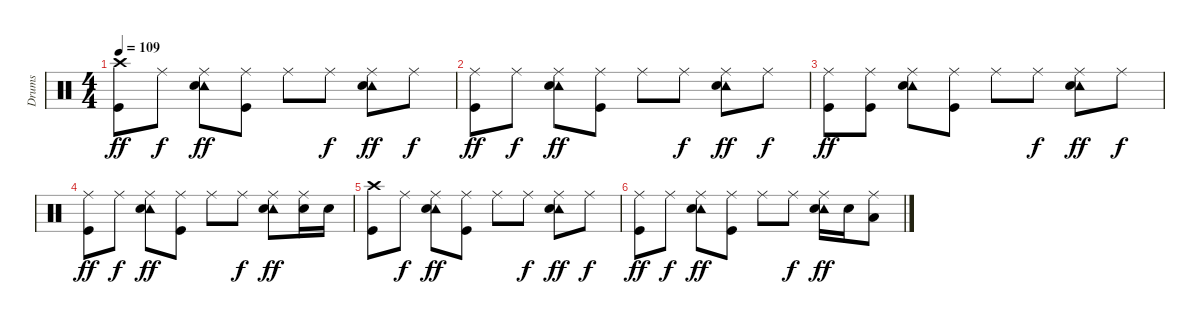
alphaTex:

\track ("Drums" "Drums") {instrument percussion}
\staff {score}
\articulation defaults
\ts (4 4)
\tempo 109
\clef neutral
\ks c
("Crash high (hit)" "Kick (hit)").8{dy ff} "Ride (middle)".8{dy f} ("Ride (middle)" "Tambourine (hit)" "Electric Snare (hit)").8{dy ff} ("Ride (middle)" "Kick (hit)").8 "Ride (middle)".8 "Ride (middle)".8{dy f} ("Ride (middle)" "Tambourine (hit)" "Electric Snare (hit)").8{dy ff} "Ride (middle)".8{dy f} |
("Ride (middle)" "Kick (hit)").8{dy ff} "Ride (middle)".8{dy f} ("Ride (middle)" "Tambourine (hit)" "Electric Snare (hit)").8{dy ff} ("Ride (middle)" "Kick (hit)").8 "Ride (middle)".8 "Ride (middle)".8{dy f} ("Ride (middle)" "Tambourine (hit)" "Electric Snare (hit)").8{dy ff} "Ride (middle)".8{dy f} |
("Ride (middle)" "Kick (hit)").8{dy ff} ("Ride (middle)" "Kick (hit)").8 ("Ride (middle)" "Tambourine (hit)" "Electric Snare (hit)").8 ("Ride (middle)" "Kick (hit)").8 "Ride (middle)".8 "Ride (middle)".8{dy f} ("Ride (middle)" "Tambourine (hit)" "Electric Snare (hit)").8{dy ff} "Ride (middle)".8{dy f} |
("Ride (middle)" "Kick (hit)").8{dy ff} "Ride (middle)".8{dy f} ("Ride (middle)" "Tambourine (hit)" "Electric Snare (hit)").8{dy ff} ("Ride (middle)" "Kick (hit)").8 "Ride (middle)".8 "Ride (middle)".8{dy f} ("Ride (middle)" "Tambourine (hit)" "Electric Snare (hit)").8{dy ff} ("Ride (middle)" "Electric Snare (hit)").16 "Electric Snare (hit)".16 |
("Crash high (hit)" "Kick (hit)").8 "Ride (middle)".8{dy f} ("Ride (middle)" "Tambourine (hit)" "Electric Snare (hit)").8{dy ff} ("Ride (middle)" "Kick (hit)").8 "Ride (middle)".8 "Ride (middle)".8{dy f} ("Ride (middle)" "Tambourine (hit)" "Electric Snare (hit)").8{dy ff} "Ride (middle)".8{dy f} |
("Ride (middle)" "Kick (hit)").8{dy ff} "Ride (middle)".8{dy f} ("Ride (middle)" "Tambourine (hit)" "Electric Snare (hit)").8{dy ff} ("Ride (middle)" "Kick (hit)").8 "Ride (middle)".8 "Ride (middle)".8{dy f} ("Ride (middle)" "Tambourine (hit)" "Electric Snare (hit)").16{dy ff} "Electric Snare (hit)".16 ("Ride (middle)" "Low Tom (hit)").8
